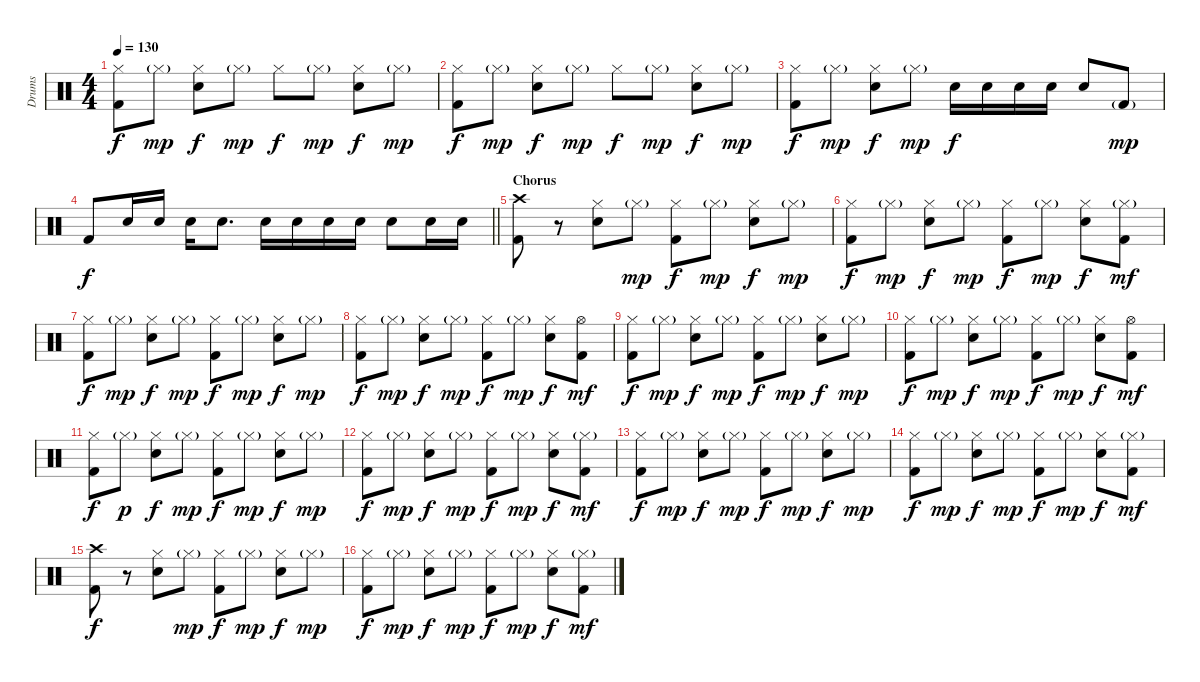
\track ("Drums" "Drums") {instrument percussion}
\staff {score}
\articulation defaults
\ts (4 4)
\tempo 130
\clef neutral
\ks c
("Hi-Hat (closed)" "Kick (hit) 2").8{dy f} "Hi-Hat (closed)"{g}.8{dy mp} ("Hi-Hat (closed)" "Snare (hit) 2").8{dy f} "Hi-Hat (closed)"{g}.8{dy mp} "Hi-Hat (closed)".8{dy f} "Hi-Hat (closed)"{g}.8{dy mp} ("Hi-Hat (closed)" "Snare (hit) 2").8{dy f} "Hi-Hat (closed)"{g}.8{dy mp} |
("Hi-Hat (closed)" "Kick (hit) 2").8{dy f} "Hi-Hat (closed)"{g}.8{dy mp} ("Hi-Hat (closed)" "Snare (hit) 2").8{dy f} "Hi-Hat (closed)"{g}.8{dy mp} "Hi-Hat (closed)".8{dy f} "Hi-Hat (closed)"{g}.8{dy mp} ("Hi-Hat (closed)" "Snare (hit) 2").8{dy f} "Hi-Hat (closed)"{g}.8{dy mp} |
("Hi-Hat (closed)" "Kick (hit) 2").8{dy f} "Hi-Hat (closed)"{g}.8{dy mp} ("Hi-Hat (closed)" "Snare (hit) 2").8{dy f} "Hi-Hat (closed)"{g}.8{dy mp} "Snare (hit) 2".16{dy f} "Snare (hit) 2".16 "Snare (hit) 2".16 "Snare (hit) 2".16 "Snare (hit) 2".8 "Kick (hit) 2"{g}.8{dy mp} |
\barLineRight lightlight "Kick (hit) 2".8{dy f} "Snare (hit) 2".16 "Snare (hit) 2".16 "Snare (hit) 2".16 "Snare (hit) 2".8{d} "Snare (hit) 2".16 "Snare (hit) 2".16 "Snare (hit) 2".16 "Snare (hit) 2".16 "Snare (hit) 2".8 "Snare (hit) 2".16 "Snare (hit) 2".16
|
\section ("" "Chorus")
("Crash high (hit)" "Kick (hit) 2").8 r.8 ("Hi-Hat (closed)" "Snare (hit) 2").8 "Hi-Hat (closed)"{g}.8{dy mp} ("Hi-Hat (closed)" "Kick (hit) 2").8{dy f} "Hi-Hat (closed)"{g}.8{dy mp} ("Hi-Hat (closed)" "Snare (hit) 2").8{dy f} "Hi-Hat (closed)"{g}.8{dy mp} |
("Hi-Hat (closed)" "Kick (hit) 2").8{dy f} "Hi-Hat (closed)"{g}.8{dy mp} ("Hi-Hat (closed)" "Snare (hit) 2").8{dy f} "Hi-Hat (closed)"{g}.8{dy mp} ("Hi-Hat (closed)" "Kick (hit) 2").8{dy f} "Hi-Hat (closed)"{g}.8{dy mp} ("Hi-Hat (closed)" "Snare (hit) 2").8{dy f} ("Hi-Hat (closed)"{g} "Kick (hit) 2").8{dy mf} |
("Hi-Hat (closed)" "Kick (hit) 2").8{dy f} "Hi-Hat (closed)"{g}.8{dy mp} ("Hi-Hat (closed)" "Snare (hit) 2").8{dy f} "Hi-Hat (closed)"{g}.8{dy mp} ("Hi-Hat (closed)" "Kick (hit) 2").8{dy f} "Hi-Hat (closed)"{g}.8{dy mp} ("Hi-Hat (closed)" "Snare (hit) 2").8{dy f} "Hi-Hat (closed)"{g}.8{dy mp} |
("Hi-Hat (closed)" "Kick (hit) 2").8{dy f} "Hi-Hat (closed)"{g}.8{dy mp} ("Hi-Hat (closed)" "Snare (hit) 2").8{dy f} "Hi-Hat (closed)"{g}.8{dy mp} ("Hi-Hat (closed)" "Kick (hit) 2").8{dy f} "Hi-Hat (closed)"{g}.8{dy mp} ("Hi-Hat (closed)" "Snare (hit) 2").8{dy f} ("Hi-Hat (open)" "Kick (hit) 2").8{dy mf} |
("Hi-Hat (closed)" "Kick (hit) 2").8{dy f} "Hi-Hat (closed)"{g}.8{dy mp} ("Hi-Hat (closed)" "Snare (hit) 2").8{dy f} "Hi-Hat (closed)"{g}.8{dy mp} ("Hi-Hat (closed)" "Kick (hit) 2").8{dy f} "Hi-Hat (closed)"{g}.8{dy mp} ("Hi-Hat (closed)" "Snare (hit) 2").8{dy f} "Hi-Hat (closed)"{g}.8{dy mp} |
("Hi-Hat (closed)" "Kick (hit) 2").8{dy f} "Hi-Hat (closed)"{g}.8{dy mp} ("Hi-Hat (closed)" "Snare (hit) 2").8{dy f} "Hi-Hat (closed)"{g}.8{dy mp} ("Hi-Hat (closed)" "Kick (hit) 2").8{dy f} "Hi-Hat (closed)"{g}.8{dy mp} ("Hi-Hat (closed)" "Snare (hit) 2").8{dy f} ("Hi-Hat (open)" "Kick (hit) 2").8{dy mf} |
("Hi-Hat (closed)" "Kick (hit) 2").8{dy f} "Hi-Hat (closed)"{g}.8{dy p} ("Hi-Hat (closed)" "Snare (hit) 2").8{dy f} "Hi-Hat (closed)"{g}.8{dy mp} ("Hi-Hat (closed)" "Kick (hit) 2").8{dy f} "Hi-Hat (closed)"{g}.8{dy mp} ("Hi-Hat (closed)" "Snare (hit) 2").8{dy f} "Hi-Hat (closed)"{g}.8{dy mp} |
("Hi-Hat (closed)" "Kick (hit) 2").8{dy f} "Hi-Hat (closed)"{g}.8{dy mp} ("Hi-Hat (closed)" "Snare (hit) 2").8{dy f} "Hi-Hat (closed)"{g}.8{dy mp} ("Hi-Hat (closed)" "Kick (hit) 2").8{dy f} "Hi-Hat (closed)"{g}.8{dy mp} ("Hi-Hat (closed)" "Snare (hit) 2").8{dy f} ("Hi-Hat (closed)"{g} "Kick (hit) 2").8{dy mf} |
("Hi-Hat (closed)" "Kick (hit) 2").8{dy f} "Hi-Hat (closed)"{g}.8{dy mp} ("Hi-Hat (closed)" "Snare (hit) 2").8{dy f} "Hi-Hat (closed)"{g}.8{dy mp} ("Hi-Hat (closed)" "Kick (hit) 2").8{dy f} "Hi-Hat (closed)"{g}.8{dy mp} ("Hi-Hat (closed)" "Snare (hit) 2").8{dy f} "Hi-Hat (closed)"{g}.8{dy mp} |
("Hi-Hat (closed)" "Kick (hit) 2").8{dy f} "Hi-Hat (closed)"{g}.8{dy mp} ("Hi-Hat (closed)" "Snare (hit) 2").8{dy f} "Hi-Hat (closed)"{g}.8{dy mp} ("Hi-Hat (closed)" "Kick (hit) 2").8{dy f} "Hi-Hat (closed)"{g}.8{dy mp} ("Hi-Hat (closed)" "Snare (hit) 2").8{dy f} ("Hi-Hat (closed)"{g} "Kick (hit) 2").8{dy mf} |
("Crash high (hit)" "Kick (hit) 2").8{dy f} r.8 ("Hi-Hat (closed)" "Snare (hit) 2").8 "Hi-Hat (closed)"{g}.8{dy mp} ("Hi-Hat (closed)" "Kick (hit) 2").8{dy f} "Hi-Hat (closed)"{g}.8{dy mp} ("Hi-Hat (closed)" "Snare (hit) 2").8{dy f} "Hi-Hat (closed)"{g}.8{dy mp} |
("Hi-Hat (closed)" "Kick (hit) 2").8{dy f} "Hi-Hat (closed)"{g}.8{dy mp} ("Hi-Hat (closed)" "Snare (hit) 2").8{dy f} "Hi-Hat (closed)"{g}.8{dy mp} ("Hi-Hat (closed)" "Kick (hit) 2").8{dy f} "Hi-Hat (closed)"{g}.8{dy mp} ("Hi-Hat (closed)" "Snare (hit) 2").8{dy f} ("Hi-Hat (closed)"{g} "Kick (hit) 2").8{dy mf}
